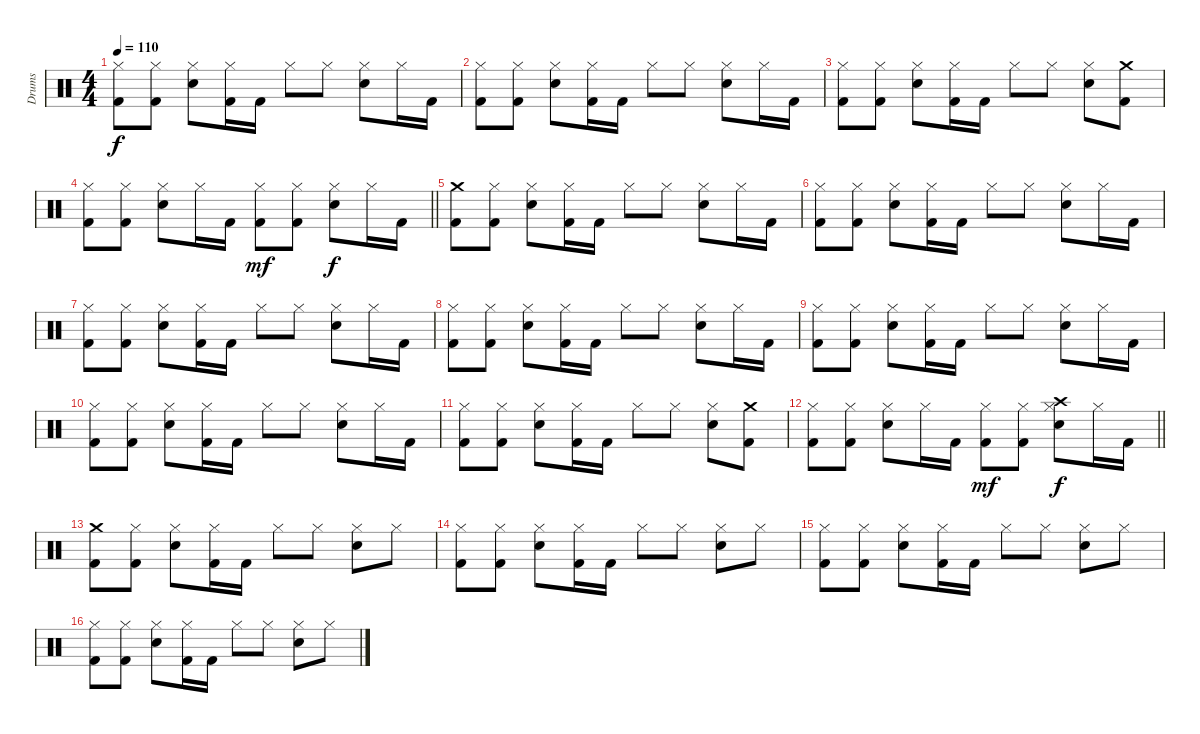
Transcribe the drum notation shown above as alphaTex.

\track ("Drums" "Drums") {instrument percussion}
\staff {score}
\articulation defaults
\ts (4 4)
\tempo 110
\clef neutral
\ks c
("Hi-Hat (closed)" "Kick (hit) 2").8{dy f} ("Hi-Hat (closed)" "Kick (hit) 2").8 ("Hi-Hat (closed)" "Snare (hit) 2").8 ("Hi-Hat (closed)" "Kick (hit) 2").16 "Kick (hit) 2".16 "Hi-Hat (closed)".8 "Hi-Hat (closed)".8 ("Hi-Hat (closed)" "Snare (hit) 2").8 "Hi-Hat (closed)".16 "Kick (hit) 2".16 |
("Hi-Hat (closed)" "Kick (hit) 2").8 ("Hi-Hat (closed)" "Kick (hit) 2").8 ("Hi-Hat (closed)" "Snare (hit) 2").8 ("Hi-Hat (closed)" "Kick (hit) 2").16 "Kick (hit) 2".16 "Hi-Hat (closed)".8 "Hi-Hat (closed)".8 ("Hi-Hat (closed)" "Snare (hit) 2").8 "Hi-Hat (closed)".16 "Kick (hit) 2".16 |
("Hi-Hat (closed)" "Kick (hit) 2").8 ("Hi-Hat (closed)" "Kick (hit) 2").8 ("Hi-Hat (closed)" "Snare (hit) 2").8 ("Hi-Hat (closed)" "Kick (hit) 2").16 "Kick (hit) 2".16 "Hi-Hat (closed)".8 "Hi-Hat (closed)".8 ("Hi-Hat (closed)" "Snare (hit) 2").8 ("Crash medium (hit)" "Kick (hit) 2").8 |
\barLineRight lightlight
("Hi-Hat (closed)" "Kick (hit) 2").8 ("Hi-Hat (closed)" "Kick (hit) 2").8 ("Hi-Hat (closed)" "Snare (hit) 2").8 "Hi-Hat (closed)".16 "Kick (hit) 2".16 ("Hi-Hat (closed)" "Kick (hit) 2").8{dy mf} ("Hi-Hat (closed)" "Kick (hit) 2").8 ("Hi-Hat (closed)" "Snare (hit) 2").8{dy f} "Hi-Hat (closed)".16 "Kick (hit) 2".16 |
("Crash medium (hit)" "Kick (hit) 2").8 ("Hi-Hat (closed)" "Kick (hit) 2").8 ("Hi-Hat (closed)" "Snare (hit) 2").8 ("Hi-Hat (closed)" "Kick (hit) 2").16 "Kick (hit) 2".16 "Hi-Hat (closed)".8 "Hi-Hat (closed)".8 ("Hi-Hat (closed)" "Snare (hit) 2").8 "Hi-Hat (closed)".16 "Kick (hit) 2".16 |
("Hi-Hat (closed)" "Kick (hit) 2").8 ("Hi-Hat (closed)" "Kick (hit) 2").8 ("Hi-Hat (closed)" "Snare (hit) 2").8 ("Hi-Hat (closed)" "Kick (hit) 2").16 "Kick (hit) 2".16 "Hi-Hat (closed)".8 "Hi-Hat (closed)".8 ("Hi-Hat (closed)" "Snare (hit) 2").8 "Hi-Hat (closed)".16 "Kick (hit) 2".16 |
("Hi-Hat (closed)" "Kick (hit) 2").8 ("Hi-Hat (closed)" "Kick (hit) 2").8 ("Hi-Hat (closed)" "Snare (hit) 2").8 ("Hi-Hat (closed)" "Kick (hit) 2").16 "Kick (hit) 2".16 "Hi-Hat (closed)".8 "Hi-Hat (closed)".8 ("Hi-Hat (closed)" "Snare (hit) 2").8 "Hi-Hat (closed)".16 "Kick (hit) 2".16 |
("Hi-Hat (closed)" "Kick (hit) 2").8 ("Hi-Hat (closed)" "Kick (hit) 2").8 ("Hi-Hat (closed)" "Snare (hit) 2").8 ("Hi-Hat (closed)" "Kick (hit) 2").16 "Kick (hit) 2".16 "Hi-Hat (closed)".8 "Hi-Hat (closed)".8 ("Hi-Hat (closed)" "Snare (hit) 2").8 "Hi-Hat (closed)".16 "Kick (hit) 2".16 |
("Hi-Hat (closed)" "Kick (hit) 2").8 ("Hi-Hat (closed)" "Kick (hit) 2").8 ("Hi-Hat (closed)" "Snare (hit) 2").8 ("Hi-Hat (closed)" "Kick (hit) 2").16 "Kick (hit) 2".16 "Hi-Hat (closed)".8 "Hi-Hat (closed)".8 ("Hi-Hat (closed)" "Snare (hit) 2").8 "Hi-Hat (closed)".16 "Kick (hit) 2".16 |
("Hi-Hat (closed)" "Kick (hit) 2").8 ("Hi-Hat (closed)" "Kick (hit) 2").8 ("Hi-Hat (closed)" "Snare (hit) 2").8 ("Hi-Hat (closed)" "Kick (hit) 2").16 "Kick (hit) 2".16 "Hi-Hat (closed)".8 "Hi-Hat (closed)".8 ("Hi-Hat (closed)" "Snare (hit) 2").8 "Hi-Hat (closed)".16 "Kick (hit) 2".16 |
("Hi-Hat (closed)" "Kick (hit) 2").8 ("Hi-Hat (closed)" "Kick (hit) 2").8 ("Hi-Hat (closed)" "Snare (hit) 2").8 ("Hi-Hat (closed)" "Kick (hit) 2").16 "Kick (hit) 2".16 "Hi-Hat (closed)".8 "Hi-Hat (closed)".8 ("Hi-Hat (closed)" "Snare (hit) 2").8 ("Crash medium (hit)" "Kick (hit) 2").8 |
\barLineRight lightlight
("Hi-Hat (closed)" "Kick (hit) 2").8 ("Hi-Hat (closed)" "Kick (hit) 2").8 ("Hi-Hat (closed)" "Snare (hit) 2").8 "Hi-Hat (closed)".16 "Kick (hit) 2".16 ("Hi-Hat (closed)" "Kick (hit) 2").8{dy mf} ("Hi-Hat (closed)" "Kick (hit) 2").8 ("Crash high (hit)" "Hi-Hat (closed)" "Snare (hit) 2").8{dy f} "Hi-Hat (closed)".16 "Kick (hit) 2".16 |
("Crash medium (hit)" "Kick (hit) 2").8 ("Hi-Hat (closed)" "Kick (hit) 2").8 ("Hi-Hat (closed)" "Snare (hit) 2").8 ("Hi-Hat (closed)" "Kick (hit) 2").16 "Kick (hit) 2".16 "Hi-Hat (closed)".8 "Hi-Hat (closed)".8 ("Hi-Hat (closed)" "Snare (hit) 2").8 "Hi-Hat (closed)".8 |
("Hi-Hat (closed)" "Kick (hit) 2").8 ("Hi-Hat (closed)" "Kick (hit) 2").8 ("Hi-Hat (closed)" "Snare (hit) 2").8 ("Hi-Hat (closed)" "Kick (hit) 2").16 "Kick (hit) 2".16 "Hi-Hat (closed)".8 "Hi-Hat (closed)".8 ("Hi-Hat (closed)" "Snare (hit) 2").8 "Hi-Hat (closed)".8 |
("Hi-Hat (closed)" "Kick (hit) 2").8 ("Hi-Hat (closed)" "Kick (hit) 2").8 ("Hi-Hat (closed)" "Snare (hit) 2").8 ("Hi-Hat (closed)" "Kick (hit) 2").16 "Kick (hit) 2".16 "Hi-Hat (closed)".8 "Hi-Hat (closed)".8 ("Hi-Hat (closed)" "Snare (hit) 2").8 "Hi-Hat (closed)".8 |
("Hi-Hat (closed)" "Kick (hit) 2").8 ("Hi-Hat (closed)" "Kick (hit) 2").8 ("Hi-Hat (closed)" "Snare (hit) 2").8 ("Hi-Hat (closed)" "Kick (hit) 2").16 "Kick (hit) 2".16 "Hi-Hat (closed)".8 "Hi-Hat (closed)".8 ("Hi-Hat (closed)" "Snare (hit) 2").8 "Hi-Hat (closed)".8
